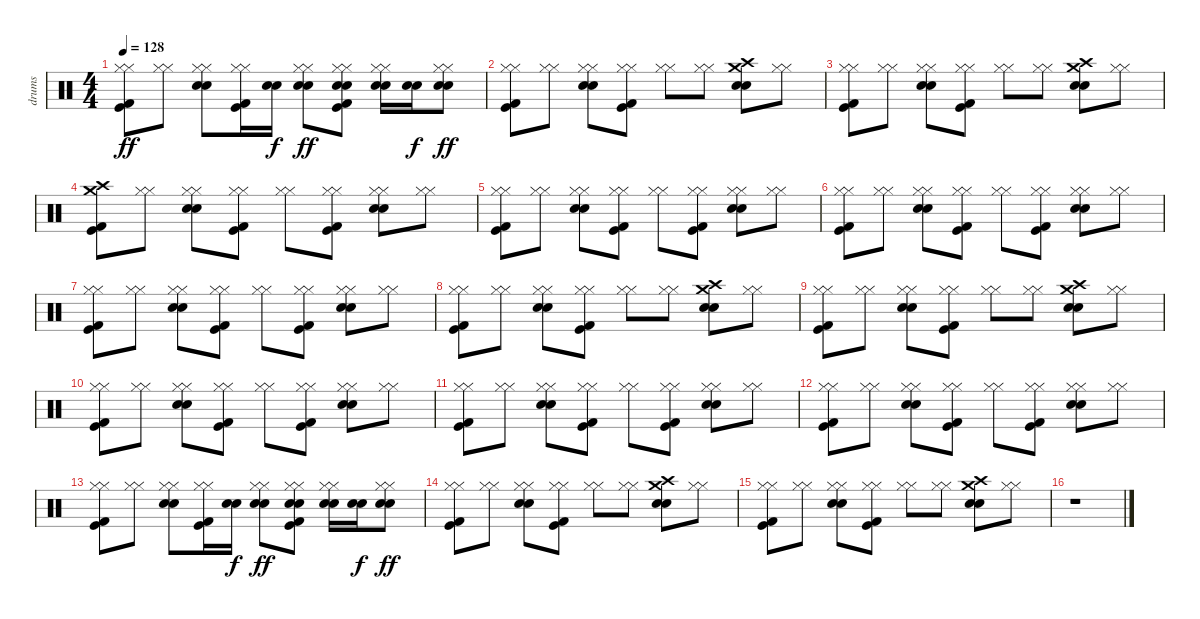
\track ("drums" "drums") {instrument percussion}
\staff {score}
\articulation defaults
\ts (4 4)
\tempo 128
\clef neutral
\ks c
("Hi-Hat (closed)" "Hi-Hat (closed)" "Kick (hit)" "Kick (hit) 2").8{dy ff} ("Hi-Hat (closed)" "Hi-Hat (closed)").8 ("Hi-Hat (closed)" "Hi-Hat (closed)" "Snare (hit) 2" "Snare (hit) 2").8 ("Hi-Hat (closed)" "Hi-Hat (closed)" "Kick (hit)" "Kick (hit) 2").16 ("Snare (hit) 2" "Snare (hit) 2").16{dy f} ("Hi-Hat (closed)" "Hi-Hat (closed)" "Snare (hit) 2" "Snare (hit) 2").8{dy ff} ("Hi-Hat (closed)" "Hi-Hat (closed)" "Snare (hit) 2" "Snare (hit) 2" "Kick (hit)" "Kick (hit) 2").8 ("Hi-Hat (closed)" "Hi-Hat (closed)" "Snare (hit) 2" "Snare (hit) 2").16 ("Snare (hit) 2" "Snare (hit) 2").16{dy f} ("Hi-Hat (closed)" "Hi-Hat (closed)" "Snare (hit) 2" "Snare (hit) 2").8{dy ff} |
("Hi-Hat (closed)" "Hi-Hat (closed)" "Kick (hit)" "Kick (hit) 2").8 ("Hi-Hat (closed)" "Hi-Hat (closed)").8 ("Hi-Hat (closed)" "Hi-Hat (closed)" "Snare (hit) 2" "Snare (hit) 2").8 ("Hi-Hat (closed)" "Hi-Hat (closed)" "Kick (hit)" "Kick (hit) 2").8 ("Hi-Hat (closed)" "Hi-Hat (closed)").8 ("Hi-Hat (closed)" "Hi-Hat (closed)").8 ("Crash medium (hit)" "Snare (hit) 2" "Snare (hit) 2" "Crash high (hit)").8 ("Hi-Hat (closed)" "Hi-Hat (closed)").8 |
("Hi-Hat (closed)" "Hi-Hat (closed)" "Kick (hit)" "Kick (hit) 2").8 ("Hi-Hat (closed)" "Hi-Hat (closed)").8 ("Hi-Hat (closed)" "Hi-Hat (closed)" "Snare (hit) 2" "Snare (hit) 2").8 ("Hi-Hat (closed)" "Hi-Hat (closed)" "Kick (hit)" "Kick (hit) 2").8 ("Hi-Hat (closed)" "Hi-Hat (closed)").8 ("Hi-Hat (closed)" "Hi-Hat (closed)").8 ("Crash medium (hit)" "Snare (hit) 2" "Snare (hit) 2" "Crash high (hit)").8 ("Hi-Hat (closed)" "Hi-Hat (closed)").8 |
("Crash medium (hit)" "Crash high (hit)" "Kick (hit)" "Kick (hit) 2").8 ("Hi-Hat (closed)" "Hi-Hat (closed)").8 ("Hi-Hat (closed)" "Hi-Hat (closed)" "Snare (hit) 2" "Snare (hit) 2").8 ("Hi-Hat (closed)" "Hi-Hat (closed)" "Kick (hit)" "Kick (hit) 2").8 ("Hi-Hat (closed)" "Hi-Hat (closed)").8 ("Hi-Hat (closed)" "Hi-Hat (closed)" "Kick (hit)" "Kick (hit) 2").8 ("Hi-Hat (closed)" "Hi-Hat (closed)" "Snare (hit) 2" "Snare (hit) 2").8 ("Hi-Hat (closed)" "Hi-Hat (closed)").8 |
("Hi-Hat (closed)" "Hi-Hat (closed)" "Kick (hit)" "Kick (hit) 2").8 ("Hi-Hat (closed)" "Hi-Hat (closed)").8 ("Hi-Hat (closed)" "Hi-Hat (closed)" "Snare (hit) 2" "Snare (hit) 2").8 ("Hi-Hat (closed)" "Hi-Hat (closed)" "Kick (hit)" "Kick (hit) 2").8 ("Hi-Hat (closed)" "Hi-Hat (closed)").8 ("Hi-Hat (closed)" "Hi-Hat (closed)" "Kick (hit)" "Kick (hit) 2").8 ("Hi-Hat (closed)" "Hi-Hat (closed)" "Snare (hit) 2" "Snare (hit) 2").8 ("Hi-Hat (closed)" "Hi-Hat (closed)").8 |
("Hi-Hat (closed)" "Hi-Hat (closed)" "Kick (hit)" "Kick (hit) 2").8 ("Hi-Hat (closed)" "Hi-Hat (closed)").8 ("Hi-Hat (closed)" "Hi-Hat (closed)" "Snare (hit) 2" "Snare (hit) 2").8 ("Hi-Hat (closed)" "Hi-Hat (closed)" "Kick (hit)" "Kick (hit) 2").8 ("Hi-Hat (closed)" "Hi-Hat (closed)").8 ("Hi-Hat (closed)" "Hi-Hat (closed)" "Kick (hit)" "Kick (hit) 2").8 ("Hi-Hat (closed)" "Hi-Hat (closed)" "Snare (hit) 2" "Snare (hit) 2").8 ("Hi-Hat (closed)" "Hi-Hat (closed)").8 |
("Hi-Hat (closed)" "Hi-Hat (closed)" "Kick (hit)" "Kick (hit) 2").8 ("Hi-Hat (closed)" "Hi-Hat (closed)").8 ("Hi-Hat (closed)" "Hi-Hat (closed)" "Snare (hit) 2" "Snare (hit) 2").8 ("Hi-Hat (closed)" "Hi-Hat (closed)" "Kick (hit)" "Kick (hit) 2").8 ("Hi-Hat (closed)" "Hi-Hat (closed)").8 ("Hi-Hat (closed)" "Hi-Hat (closed)" "Kick (hit)" "Kick (hit) 2").8 ("Hi-Hat (closed)" "Hi-Hat (closed)" "Snare (hit) 2" "Snare (hit) 2").8 ("Hi-Hat (closed)" "Hi-Hat (closed)").8 |
("Hi-Hat (closed)" "Hi-Hat (closed)" "Kick (hit)" "Kick (hit) 2").8 ("Hi-Hat (closed)" "Hi-Hat (closed)").8 ("Hi-Hat (closed)" "Hi-Hat (closed)" "Snare (hit) 2" "Snare (hit) 2").8 ("Hi-Hat (closed)" "Hi-Hat (closed)" "Kick (hit)" "Kick (hit) 2").8 ("Hi-Hat (closed)" "Hi-Hat (closed)").8 ("Hi-Hat (closed)" "Hi-Hat (closed)").8 ("Crash medium (hit)" "Snare (hit) 2" "Snare (hit) 2" "Crash high (hit)").8 ("Hi-Hat (closed)" "Hi-Hat (closed)").8 |
("Hi-Hat (closed)" "Hi-Hat (closed)" "Kick (hit)" "Kick (hit) 2").8 ("Hi-Hat (closed)" "Hi-Hat (closed)").8 ("Hi-Hat (closed)" "Hi-Hat (closed)" "Snare (hit) 2" "Snare (hit) 2").8 ("Hi-Hat (closed)" "Hi-Hat (closed)" "Kick (hit)" "Kick (hit) 2").8 ("Hi-Hat (closed)" "Hi-Hat (closed)").8 ("Hi-Hat (closed)" "Hi-Hat (closed)").8 ("Crash medium (hit)" "Snare (hit) 2" "Snare (hit) 2" "Crash high (hit)").8 ("Hi-Hat (closed)" "Hi-Hat (closed)").8 |
("Hi-Hat (closed)" "Hi-Hat (closed)" "Kick (hit)" "Kick (hit) 2").8 ("Hi-Hat (closed)" "Hi-Hat (closed)").8 ("Hi-Hat (closed)" "Hi-Hat (closed)" "Snare (hit) 2" "Snare (hit) 2").8 ("Hi-Hat (closed)" "Hi-Hat (closed)" "Kick (hit)" "Kick (hit) 2").8 ("Hi-Hat (closed)" "Hi-Hat (closed)").8 ("Hi-Hat (closed)" "Hi-Hat (closed)" "Kick (hit)" "Kick (hit) 2").8 ("Hi-Hat (closed)" "Hi-Hat (closed)" "Snare (hit) 2" "Snare (hit) 2").8 ("Hi-Hat (closed)" "Hi-Hat (closed)").8 |
("Hi-Hat (closed)" "Hi-Hat (closed)" "Kick (hit)" "Kick (hit) 2").8 ("Hi-Hat (closed)" "Hi-Hat (closed)").8 ("Hi-Hat (closed)" "Hi-Hat (closed)" "Snare (hit) 2" "Snare (hit) 2").8 ("Hi-Hat (closed)" "Hi-Hat (closed)" "Kick (hit)" "Kick (hit) 2").8 ("Hi-Hat (closed)" "Hi-Hat (closed)").8 ("Hi-Hat (closed)" "Hi-Hat (closed)" "Kick (hit)" "Kick (hit) 2").8 ("Hi-Hat (closed)" "Hi-Hat (closed)" "Snare (hit) 2" "Snare (hit) 2").8 ("Hi-Hat (closed)" "Hi-Hat (closed)").8 |
("Hi-Hat (closed)" "Hi-Hat (closed)" "Kick (hit)" "Kick (hit) 2").8{volume 10} ("Hi-Hat (closed)" "Hi-Hat (closed)").8 ("Hi-Hat (closed)" "Hi-Hat (closed)" "Snare (hit) 2" "Snare (hit) 2").8 ("Hi-Hat (closed)" "Hi-Hat (closed)" "Kick (hit)" "Kick (hit) 2").8 ("Hi-Hat (closed)" "Hi-Hat (closed)").8{volume 9} ("Hi-Hat (closed)" "Hi-Hat (closed)" "Kick (hit)" "Kick (hit) 2").8 ("Hi-Hat (closed)" "Hi-Hat (closed)" "Snare (hit) 2" "Snare (hit) 2").8 ("Hi-Hat (closed)" "Hi-Hat (closed)").8 |
("Hi-Hat (closed)" "Hi-Hat (closed)" "Kick (hit)" "Kick (hit) 2").8{volume 8} ("Hi-Hat (closed)" "Hi-Hat (closed)").8 ("Hi-Hat (closed)" "Hi-Hat (closed)" "Snare (hit) 2" "Snare (hit) 2").8 ("Hi-Hat (closed)" "Hi-Hat (closed)" "Kick (hit)" "Kick (hit) 2").16 ("Snare (hit) 2" "Snare (hit) 2").16{dy f} ("Hi-Hat (closed)" "Hi-Hat (closed)" "Snare (hit) 2" "Snare (hit) 2").8{dy ff volume 7} ("Hi-Hat (closed)" "Hi-Hat (closed)" "Snare (hit) 2" "Snare (hit) 2" "Kick (hit)" "Kick (hit) 2").8 ("Hi-Hat (closed)" "Hi-Hat (closed)" "Snare (hit) 2" "Snare (hit) 2").16 ("Snare (hit) 2" "Snare (hit) 2").16{dy f} ("Hi-Hat (closed)" "Hi-Hat (closed)" "Snare (hit) 2" "Snare (hit) 2").8{dy ff} |
("Hi-Hat (closed)" "Hi-Hat (closed)" "Kick (hit)" "Kick (hit) 2").8{volume 6} ("Hi-Hat (closed)" "Hi-Hat (closed)").8 ("Hi-Hat (closed)" "Hi-Hat (closed)" "Snare (hit) 2" "Snare (hit) 2").8 ("Hi-Hat (closed)" "Hi-Hat (closed)" "Kick (hit)" "Kick (hit) 2").8 ("Hi-Hat (closed)" "Hi-Hat (closed)").8{volume 5} ("Hi-Hat (closed)" "Hi-Hat (closed)").8 ("Crash medium (hit)" "Snare (hit) 2" "Snare (hit) 2" "Crash high (hit)").8 ("Hi-Hat (closed)" "Hi-Hat (closed)").8 |
("Hi-Hat (closed)" "Hi-Hat (closed)" "Kick (hit)" "Kick (hit) 2").8{volume 4} ("Hi-Hat (closed)" "Hi-Hat (closed)").8 ("Hi-Hat (closed)" "Hi-Hat (closed)" "Snare (hit) 2" "Snare (hit) 2").8 ("Hi-Hat (closed)" "Hi-Hat (closed)" "Kick (hit)" "Kick (hit) 2").8 ("Hi-Hat (closed)" "Hi-Hat (closed)").8{volume 3} ("Hi-Hat (closed)" "Hi-Hat (closed)").8 ("Crash medium (hit)" "Snare (hit) 2" "Snare (hit) 2" "Crash high (hit)").8 ("Hi-Hat (closed)" "Hi-Hat (closed)").8{volume 2} |
r.1{volume 0}
